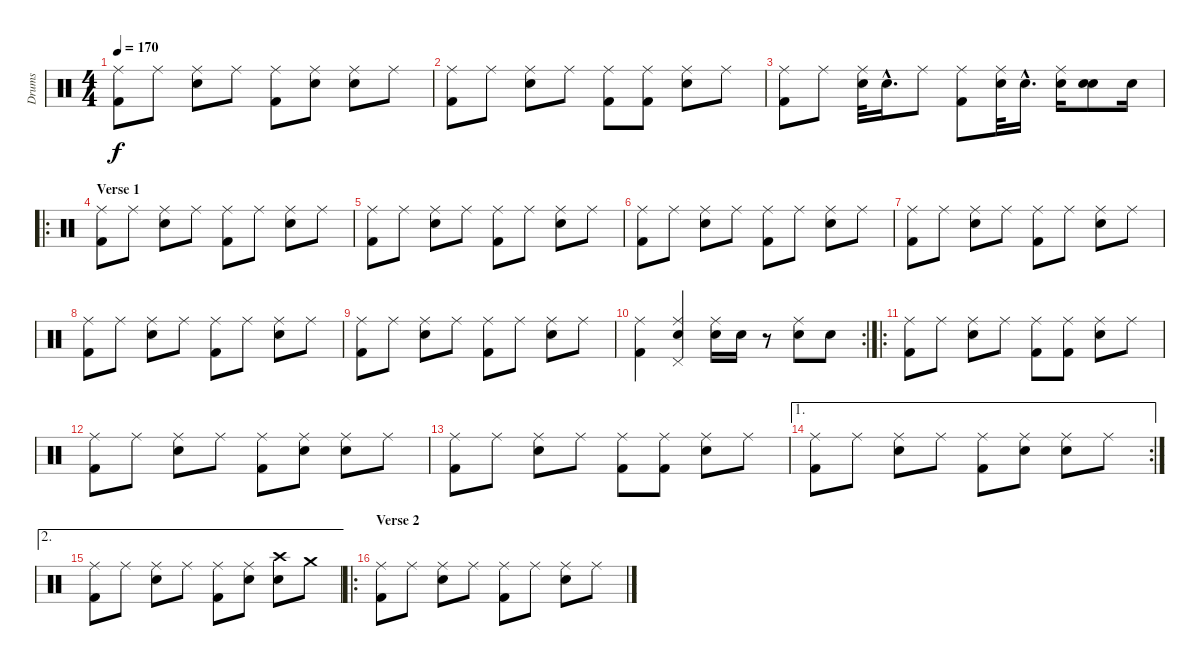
\track ("Drums" "Drums") {instrument percussion}
\staff {score}
\articulation defaults
\ts (4 4)
\tempo 170
\clef neutral
\ks c
("Ride (middle)" "Kick (hit) 2").8{dy f} "Ride (middle)".8 ("Ride (middle)" "Snare (hit) 2").8 "Ride (middle)".8 ("Ride (middle)" "Kick (hit) 2").8 ("Ride (middle)" "Snare (hit) 2").8 ("Ride (middle)" "Snare (hit) 2").8 "Ride (middle)".8 |
("Ride (middle)" "Kick (hit) 2").8 "Ride (middle)".8 ("Ride (middle)" "Snare (hit) 2").8 "Ride (middle)".8 ("Ride (middle)" "Kick (hit) 2").8 ("Ride (middle)" "Kick (hit) 2").8 ("Ride (middle)" "Snare (hit) 2").8 "Ride (middle)".8 |
("Ride (middle)" "Kick (hit) 2").8 "Ride (middle)".8 ("Ride (middle)" "Snare (hit) 2").32 "Snare (hit) 2"{hac}.16{d} "Ride (middle)".8 ("Ride (middle)" "Kick (hit) 2").8 ("Ride (middle)" "Snare (hit) 2").32 "Snare (hit) 2"{hac}.16{d} ("Ride (middle)" "Snare (hit) 2").16 ("Electric Snare (hit)" "Snare (hit) 2").8 "Snare (hit) 2".16 |
\ro
\section ("" "Verse 1")
("Ride (middle)" "Kick (hit) 2").8 "Ride (middle)".8 ("Ride (middle)" "Snare (hit) 2").8 "Ride (middle)".8 ("Ride (middle)" "Kick (hit) 2").8 "Ride (middle)".8 ("Ride (middle)" "Snare (hit) 2").8 "Ride (middle)".8 |
("Ride (middle)" "Kick (hit) 2").8 "Ride (middle)".8 ("Ride (middle)" "Snare (hit) 2").8 "Ride (middle)".8 ("Ride (middle)" "Kick (hit) 2").8 "Ride (middle)".8 ("Ride (middle)" "Snare (hit) 2").8 "Ride (middle)".8 |
("Ride (middle)" "Kick (hit) 2").8 "Ride (middle)".8 ("Ride (middle)" "Snare (hit) 2").8 "Ride (middle)".8 ("Ride (middle)" "Kick (hit) 2").8 "Ride (middle)".8 ("Ride (middle)" "Snare (hit) 2").8 "Ride (middle)".8 |
("Ride (middle)" "Kick (hit) 2").8 "Ride (middle)".8 ("Ride (middle)" "Snare (hit) 2").8 "Ride (middle)".8 ("Ride (middle)" "Kick (hit) 2").8 "Ride (middle)".8 ("Ride (middle)" "Snare (hit) 2").8 "Ride (middle)".8 |
("Ride (middle)" "Kick (hit) 2").8 "Ride (middle)".8 ("Ride (middle)" "Snare (hit) 2").8 "Ride (middle)".8 ("Ride (middle)" "Kick (hit) 2").8 "Ride (middle)".8 ("Ride (middle)" "Snare (hit) 2").8 "Ride (middle)".8 |
("Ride (middle)" "Kick (hit) 2").8 "Ride (middle)".8 ("Ride (middle)" "Snare (hit) 2").8 "Ride (middle)".8 ("Ride (middle)" "Kick (hit) 2").8 "Ride (middle)".8 ("Ride (middle)" "Snare (hit) 2").8 "Ride (middle)".8 |
\rc 2
("Ride (middle)" "Kick (hit) 2").4 ("Ride (middle)" "Snare (hit) 2" "Pedal Hi-Hat (hit)").4 ("Ride (middle)" "Snare (hit) 2").16 "Snare (hit) 2".16 r.8 ("Ride (middle)" "Snare (hit) 2").8 "Snare (hit) 2".8 |
\ro
("Ride (middle)" "Kick (hit) 2").8 "Ride (middle)".8 ("Ride (middle)" "Snare (hit) 2").8 "Ride (middle)".8 ("Ride (middle)" "Kick (hit) 2").8 ("Ride (middle)" "Kick (hit) 2").8 ("Ride (middle)" "Snare (hit) 2").8 "Ride (middle)".8 |
("Ride (middle)" "Kick (hit) 2").8 "Ride (middle)".8 ("Ride (middle)" "Snare (hit) 2").8 "Ride (middle)".8 ("Ride (middle)" "Kick (hit) 2").8 ("Ride (middle)" "Snare (hit) 2").8 ("Ride (middle)" "Snare (hit) 2").8 "Ride (middle)".8 |
("Ride (middle)" "Kick (hit) 2").8 "Ride (middle)".8 ("Ride (middle)" "Snare (hit) 2").8 "Ride (middle)".8 ("Ride (middle)" "Kick (hit) 2").8 ("Ride (middle)" "Kick (hit) 2").8 ("Ride (middle)" "Snare (hit) 2").8 "Ride (middle)".8 |
\ae 1
\rc 2
("Ride (middle)" "Kick (hit) 2").8 "Ride (middle)".8 ("Ride (middle)" "Snare (hit) 2").8 "Ride (middle)".8 ("Ride (middle)" "Kick (hit) 2").8 ("Ride (middle)" "Snare (hit) 2").8 ("Ride (middle)" "Snare (hit) 2").8 "Ride (middle)".8 |
\ae 2
("Ride (middle)" "Kick (hit) 2").8 "Ride (middle)".8 ("Ride (middle)" "Snare (hit) 2").8 "Ride (middle)".8 ("Ride (middle)" "Kick (hit) 2").8 ("Ride (middle)" "Snare (hit) 2").8 ("Crash high (hit)" "Snare (hit) 2").8 "Crash medium (hit)".8 |
\ro
\section ("" "Verse 2")
("Ride (middle)" "Kick (hit) 2").8 "Ride (middle)".8 ("Ride (middle)" "Snare (hit) 2").8 "Ride (middle)".8 ("Ride (middle)" "Kick (hit) 2").8 "Ride (middle)".8 ("Ride (middle)" "Snare (hit) 2").8 "Ride (middle)".8
